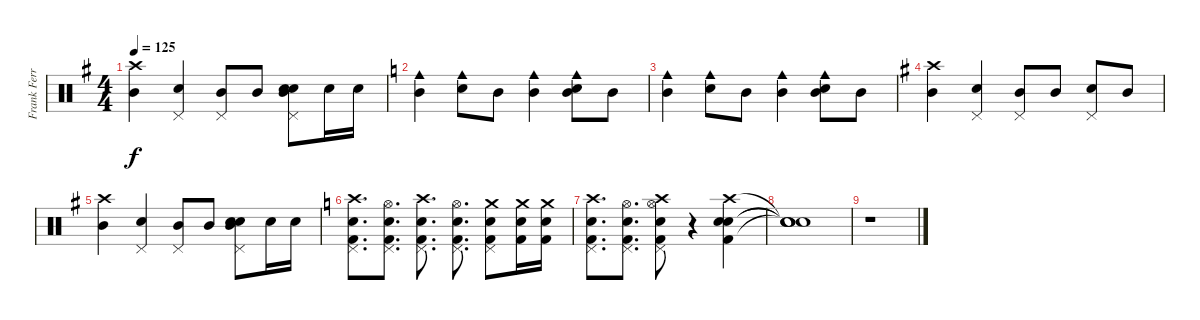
\track ("Frank Ferrer" "Frank Ferr") {instrument percussion}
\staff {score}
\articulation defaults
\ts (4 4)
\tempo 125
\clef neutral
\ks g
("Crash high (hit)" "Mid Tom (hit)").4{dy f} ("Pedal Hi-Hat (hit)" "Snare (hit) 2").4 ("Pedal Hi-Hat (hit)" "Mid Tom (hit)").8 "Mid Tom (hit)".8 ("Pedal Hi-Hat (hit)" "Snare (hit) 2" "Electric Snare (hit)" "Mid Tom (hit)").8 "Electric Snare (hit)".16 "Electric Snare (hit)".16 |
\ks c
("Mid Tom (hit)" "Cowbell medium (hit)").4 ("Electric Snare (hit)" "Cowbell medium (hit)").8 "Mid Tom (hit)".8 ("Mid Tom (hit)" "Cowbell medium (hit)").4 ("Electric Snare (hit)" "Mid Tom (hit)" "Cowbell medium (hit)").8 "Mid Tom (hit)".8 |
("Mid Tom (hit)" "Cowbell medium (hit)").4 ("Electric Snare (hit)" "Cowbell medium (hit)").8 "Mid Tom (hit)".8 ("Mid Tom (hit)" "Cowbell medium (hit)").4 ("Electric Snare (hit)" "Mid Tom (hit)" "Cowbell medium (hit)").8 "Mid Tom (hit)".8 |
\ks g
("Crash high (hit)" "Mid Tom (hit)").4 ("Pedal Hi-Hat (hit)" "Snare (hit) 2").4 ("Pedal Hi-Hat (hit)" "Mid Tom (hit)").8 "Mid Tom (hit)".8 ("Pedal Hi-Hat (hit)" "Snare (hit) 2").8 "Mid Tom (hit)".8 |
("Crash high (hit)" "Mid Tom (hit)").4 ("Pedal Hi-Hat (hit)" "Snare (hit) 2").4 ("Pedal Hi-Hat (hit)" "Mid Tom (hit)").8 "Mid Tom (hit)".8 ("Pedal Hi-Hat (hit)" "Snare (hit) 2" "Electric Snare (hit)" "Mid Tom (hit)").8 "Electric Snare (hit)".16 "Electric Snare (hit)".16 |
\ks c
("Kick (hit) 2" "Pedal Hi-Hat (hit)" "Snare (hit) 2" "Crash high (hit)").8{d} ("Kick (hit) 2" "Pedal Hi-Hat (hit)" "Electric Snare (hit)" "Hi-Hat (open)").8{d} ("Kick (hit) 2" "Pedal Hi-Hat (hit)" "Snare (hit) 2" "Crash high (hit)").8{d} ("Kick (hit) 2" "Pedal Hi-Hat (hit)" "Electric Snare (hit)" "Hi-Hat (open)").8{d} ("Kick (hit) 2" "Pedal Hi-Hat (hit)" "Electric Snare (hit)" "Crash medium (hit)").8 ("Kick (hit) 2" "Electric Snare (hit)" "Crash medium (hit)").16 ("Kick (hit) 2" "Electric Snare (hit)" "Crash medium (hit)").16 |
("Kick (hit) 2" "Pedal Hi-Hat (hit)" "Snare (hit) 2" "Crash high (hit)").8{d} ("Kick (hit) 2" "Pedal Hi-Hat (hit)" "Electric Snare (hit)" "Hi-Hat (open)").8{d} ("Kick (hit) 2" "Pedal Hi-Hat (hit)" "Snare (hit) 2" "Crash high (hit)" "Hi-Hat (open)").8 r.4 ("Kick (hit) 2" "Crash high (hit)" "Snare (hit) 2" "Electric Snare (hit)").4 |
("Snare (hit)"{t} "Snare (hit)"{t} "Snare (hit)"{t} "Snare (hit)"{t}).1 |
r.1
